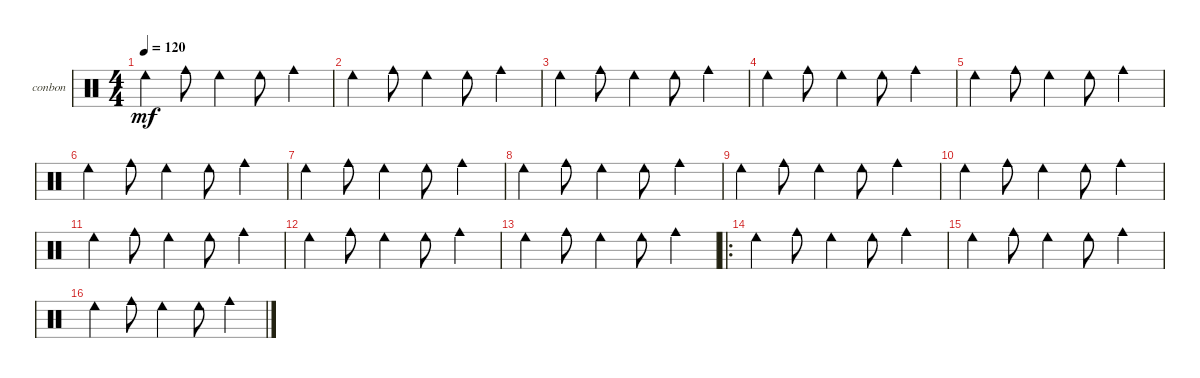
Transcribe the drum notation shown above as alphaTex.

\bracketExtendMode groupsimilarinstruments
\firstSystemTrackNameOrientation horizontal
\otherSystemsTrackNameOrientation horizontal
\track ("Bongos N Congas" "conbon") {instrument percussion}
\staff {score}
\articulation defaults
\ts (4 4)
\tempo 120
\clef neutral
\ks c "Cowbell low (hit)".4{dy mf} "Cowbell medium (hit)".8 "Cowbell low (hit)".4 "Cowbell low (hit)".8 "Cowbell medium (hit)".4
|
"Cowbell low (hit)".4 "Cowbell medium (hit)".8 "Cowbell low (hit)".4 "Cowbell low (hit)".8 "Cowbell medium (hit)".4 |
"Cowbell low (hit)".4 "Cowbell medium (hit)".8 "Cowbell low (hit)".4 "Cowbell low (hit)".8 "Cowbell medium (hit)".4 |
"Cowbell low (hit)".4 "Cowbell medium (hit)".8 "Cowbell low (hit)".4 "Cowbell low (hit)".8 "Cowbell medium (hit)".4 |
"Cowbell low (hit)".4 "Cowbell medium (hit)".8 "Cowbell low (hit)".4 "Cowbell low (hit)".8 "Cowbell medium (hit)".4 |
"Cowbell low (hit)".4 "Cowbell medium (hit)".8 "Cowbell low (hit)".4 "Cowbell low (hit)".8 "Cowbell medium (hit)".4 |
"Cowbell low (hit)".4 "Cowbell medium (hit)".8 "Cowbell low (hit)".4 "Cowbell low (hit)".8 "Cowbell medium (hit)".4 |
"Cowbell low (hit)".4 "Cowbell medium (hit)".8 "Cowbell low (hit)".4 "Cowbell low (hit)".8 "Cowbell medium (hit)".4 |
"Cowbell low (hit)".4 "Cowbell medium (hit)".8 "Cowbell low (hit)".4 "Cowbell low (hit)".8 "Cowbell medium (hit)".4 |
"Cowbell low (hit)".4 "Cowbell medium (hit)".8 "Cowbell low (hit)".4 "Cowbell low (hit)".8 "Cowbell medium (hit)".4 |
"Cowbell low (hit)".4 "Cowbell medium (hit)".8 "Cowbell low (hit)".4 "Cowbell low (hit)".8 "Cowbell medium (hit)".4 |
"Cowbell low (hit)".4 "Cowbell medium (hit)".8 "Cowbell low (hit)".4 "Cowbell low (hit)".8 "Cowbell medium (hit)".4 |
"Cowbell low (hit)".4 "Cowbell medium (hit)".8 "Cowbell low (hit)".4 "Cowbell low (hit)".8 "Cowbell medium (hit)".4 |
\ro "Cowbell low (hit)".4 "Cowbell medium (hit)".8 "Cowbell low (hit)".4 "Cowbell low (hit)".8 "Cowbell medium (hit)".4
|
"Cowbell low (hit)".4 "Cowbell medium (hit)".8 "Cowbell low (hit)".4 "Cowbell low (hit)".8 "Cowbell medium (hit)".4 |
"Cowbell low (hit)".4 "Cowbell medium (hit)".8 "Cowbell low (hit)".4 "Cowbell low (hit)".8 "Cowbell medium (hit)".4
